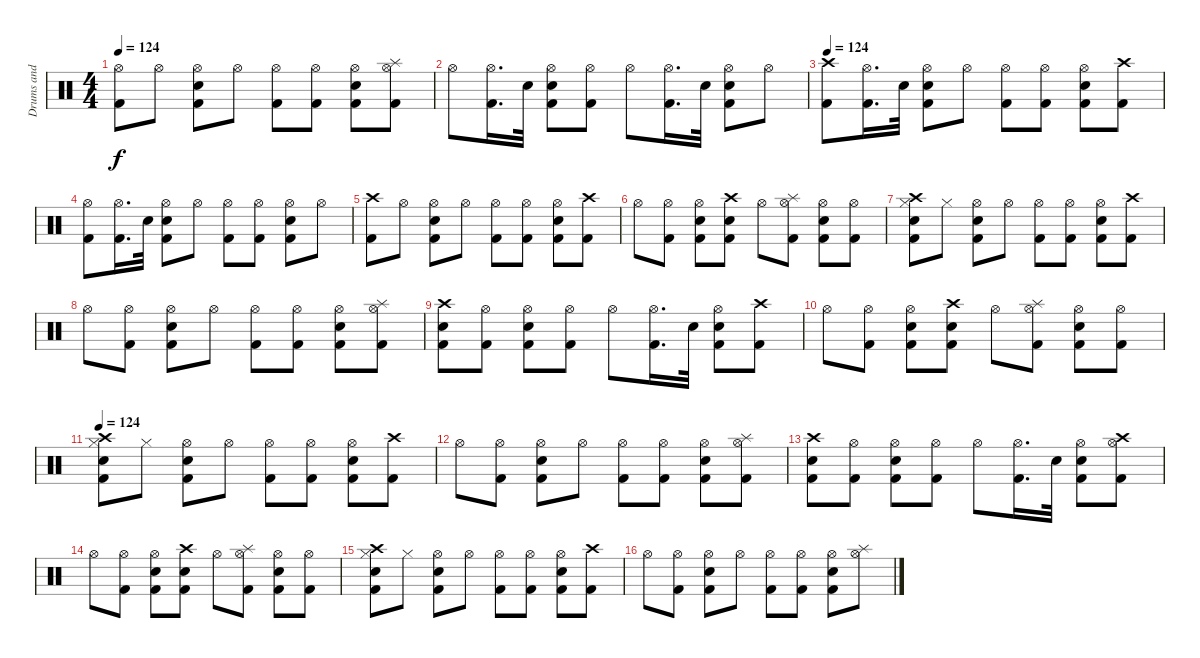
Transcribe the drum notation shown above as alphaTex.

\track ("Drums and Percussie" "Drums and ") {instrument percussion}
\staff {score}
\articulation defaults
\ts (4 4)
\tempo 124
\clef neutral
\ks c
("Hi-Hat (open)" "Kick (hit) 2").8{dy f} "Hi-Hat (open)".8 ("Snare (hit) 2" "Hi-Hat (open)" "Kick (hit) 2").8 "Hi-Hat (open)".8 ("Kick (hit) 2" "Hi-Hat (open)").8 ("Kick (hit) 2" "Hi-Hat (open)").8 ("Kick (hit) 2" "Hi-Hat (open)" "Snare (hit) 2").8 ("Hi-Hat (open)" "Kick (hit) 2" "Splash (hit)").8 |
"Hi-Hat (open)".8 ("Kick (hit) 2" "Hi-Hat (open)").16{d} "Snare (hit) 2".32 ("Hi-Hat (open)" "Kick (hit) 2" "Snare (hit) 2").8 ("Kick (hit) 2" "Hi-Hat (open)").8 "Hi-Hat (open)".8 ("Kick (hit) 2" "Hi-Hat (open)").16{d} "Snare (hit) 2".32 ("Hi-Hat (open)" "Snare (hit) 2" "Kick (hit) 2").8 "Hi-Hat (open)".8 |
\tempo 124
("Kick (hit) 2" "Crash high (hit)").8 ("Hi-Hat (open)" "Kick (hit) 2").16{d} "Snare (hit) 2".32 ("Hi-Hat (open)" "Snare (hit) 2" "Kick (hit) 2").8 "Hi-Hat (open)".8 ("Kick (hit) 2" "Hi-Hat (open)").8 ("Hi-Hat (open)" "Kick (hit) 2").8 ("Snare (hit) 2" "Kick (hit) 2" "Hi-Hat (open)").8 ("Kick (hit) 2" "Crash high (hit)").8 |
("Kick (hit) 2" "Hi-Hat (open)").8 ("Kick (hit) 2" "Hi-Hat (open)").16{d} "Snare (hit) 2".32 ("Hi-Hat (open)" "Snare (hit) 2" "Kick (hit) 2").8 "Hi-Hat (open)".8 ("Kick (hit) 2" "Hi-Hat (open)").8 ("Hi-Hat (open)" "Kick (hit) 2").8 ("Kick (hit) 2" "Snare (hit) 2" "Hi-Hat (open)").8 "Hi-Hat (open)".8 |
("Crash high (hit)" "Kick (hit) 2").8 "Hi-Hat (open)".8 ("Snare (hit) 2" "Hi-Hat (open)" "Kick (hit) 2").8 "Hi-Hat (open)".8 ("Kick (hit) 2" "Hi-Hat (open)").8 ("Kick (hit) 2" "Hi-Hat (open)").8 ("Kick (hit) 2" "Hi-Hat (open)" "Snare (hit) 2").8 ("Kick (hit) 2" "Crash high (hit)").8 |
"Hi-Hat (open)".8 ("Kick (hit) 2" "Hi-Hat (open)").8 ("Kick (hit) 2" "Hi-Hat (open)" "Snare (hit) 2").8 ("Kick (hit) 2" "Snare (hit) 2" "Crash high (hit)").8 "Hi-Hat (open)".8 ("Kick (hit) 2" "Splash (hit)" "Hi-Hat (open)").8 ("Kick (hit) 2" "Snare (hit) 2" "Hi-Hat (open)").8 ("Hi-Hat (open)" "Kick (hit) 2").8 |
("Kick (hit) 2" "Hi-Hat (closed)" "Snare (hit) 2" "Crash high (hit)").8 "Hi-Hat (closed)".8 ("Kick (hit) 2" "Snare (hit) 2" "Hi-Hat (open)").8 "Hi-Hat (open)".8 ("Kick (hit) 2" "Hi-Hat (open)").8 ("Kick (hit) 2" "Hi-Hat (open)").8 ("Hi-Hat (open)" "Kick (hit) 2" "Snare (hit) 2").8 ("Kick (hit) 2" "Crash high (hit)").8 |
"Hi-Hat (open)".8 ("Kick (hit) 2" "Hi-Hat (open)").8 ("Kick (hit) 2" "Hi-Hat (open)" "Snare (hit) 2").8 "Hi-Hat (open)".8 ("Kick (hit) 2" "Hi-Hat (open)").8 ("Kick (hit) 2" "Hi-Hat (open)").8 ("Kick (hit) 2" "Hi-Hat (open)" "Snare (hit) 2").8 ("Hi-Hat (open)" "Kick (hit) 2" "Splash (hit)").8 |
("Snare (hit) 2" "Kick (hit) 2" "Crash high (hit)").8 ("Hi-Hat (open)" "Kick (hit) 2").8 ("Kick (hit) 2" "Hi-Hat (open)" "Snare (hit) 2").8 ("Kick (hit) 2" "Hi-Hat (open)").8 "Hi-Hat (open)".8 ("Hi-Hat (open)" "Kick (hit) 2").16{d} "Snare (hit) 2".32 ("Kick (hit) 2" "Hi-Hat (open)" "Snare (hit) 2").8 ("Kick (hit) 2" "Crash high (hit)").8 |
"Hi-Hat (open)".8 ("Kick (hit) 2" "Hi-Hat (open)").8 ("Kick (hit) 2" "Hi-Hat (open)" "Snare (hit) 2").8 ("Kick (hit) 2" "Snare (hit) 2" "Crash high (hit)").8 "Hi-Hat (open)".8 ("Kick (hit) 2" "Splash (hit)" "Hi-Hat (open)").8 ("Kick (hit) 2" "Snare (hit) 2" "Hi-Hat (open)").8 ("Hi-Hat (open)" "Kick (hit) 2").8 |
\tempo 124
("Kick (hit) 2" "Hi-Hat (closed)" "Snare (hit) 2" "Crash high (hit)").8 "Hi-Hat (closed)".8 ("Kick (hit) 2" "Snare (hit) 2" "Hi-Hat (open)").8 "Hi-Hat (open)".8 ("Kick (hit) 2" "Hi-Hat (open)").8 ("Kick (hit) 2" "Hi-Hat (open)").8 ("Hi-Hat (open)" "Kick (hit) 2" "Snare (hit) 2").8 ("Kick (hit) 2" "Crash high (hit)").8 |
"Hi-Hat (open)".8 ("Kick (hit) 2" "Hi-Hat (open)").8 ("Kick (hit) 2" "Hi-Hat (open)" "Snare (hit) 2").8 "Hi-Hat (open)".8 ("Kick (hit) 2" "Hi-Hat (open)").8 ("Kick (hit) 2" "Hi-Hat (open)").8 ("Kick (hit) 2" "Hi-Hat (open)" "Snare (hit) 2").8 ("Hi-Hat (open)" "Kick (hit) 2" "Splash (hit)").8 |
("Snare (hit) 2" "Kick (hit) 2" "Crash high (hit)").8 ("Hi-Hat (open)" "Kick (hit) 2").8 ("Kick (hit) 2" "Hi-Hat (open)" "Snare (hit) 2").8 ("Kick (hit) 2" "Hi-Hat (open)").8 "Hi-Hat (open)".8 ("Hi-Hat (open)" "Kick (hit) 2").16{d} "Snare (hit) 2".32 ("Kick (hit) 2" "Hi-Hat (open)" "Snare (hit) 2").8 ("Kick (hit) 2" "Hi-Hat (open)" "Crash high (hit)").8 |
"Hi-Hat (open)".8 ("Kick (hit) 2" "Hi-Hat (open)").8 ("Kick (hit) 2" "Hi-Hat (open)" "Snare (hit) 2").8 ("Kick (hit) 2" "Snare (hit) 2" "Crash high (hit)").8 "Hi-Hat (open)".8 ("Kick (hit) 2" "Splash (hit)" "Hi-Hat (open)").8 ("Kick (hit) 2" "Snare (hit) 2" "Hi-Hat (open)").8 ("Hi-Hat (open)" "Kick (hit) 2").8 |
("Kick (hit) 2" "Hi-Hat (closed)" "Snare (hit) 2" "Crash high (hit)").8 "Hi-Hat (closed)".8 ("Kick (hit) 2" "Snare (hit) 2" "Hi-Hat (open)").8 "Hi-Hat (open)".8 ("Kick (hit) 2" "Hi-Hat (open)").8 ("Kick (hit) 2" "Hi-Hat (open)").8 ("Hi-Hat (open)" "Kick (hit) 2" "Snare (hit) 2").8 ("Kick (hit) 2" "Crash high (hit)").8 |
"Hi-Hat (open)".8 ("Kick (hit) 2" "Hi-Hat (open)").8 ("Kick (hit) 2" "Hi-Hat (open)" "Snare (hit) 2").8 "Hi-Hat (open)".8 ("Kick (hit) 2" "Hi-Hat (open)").8 ("Kick (hit) 2" "Hi-Hat (open)").8 ("Kick (hit) 2" "Hi-Hat (open)" "Snare (hit) 2").8 ("Hi-Hat (open)" "Splash (hit)").8
